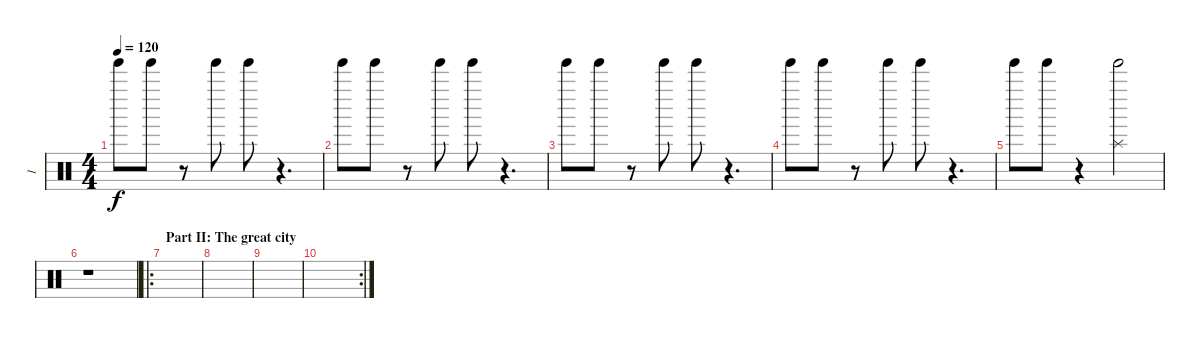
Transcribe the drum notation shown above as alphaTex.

\track ("I" "I") {instrument percussion}
\staff {score}
\articulation defaults
\ts (4 4)
\tempo 120
\clef neutral
\ks c "Tinkle Bell (hit)".8{dy f volume 7} "Tinkle Bell (hit)".8
r.8 "Tinkle Bell (hit)".8 "Tinkle Bell (hit)".8 r.4{d} |
"Tinkle Bell (hit)".8 "Tinkle Bell (hit)".8 r.8 "Tinkle Bell (hit)".8 "Tinkle Bell (hit)".8 r.4{d} |
"Tinkle Bell (hit)".8 "Tinkle Bell (hit)".8 r.8 "Tinkle Bell (hit)".8 "Tinkle Bell (hit)".8 r.4{d} |
"Tinkle Bell (hit)".8 "Tinkle Bell (hit)".8 r.8 "Tinkle Bell (hit)".8 "Tinkle Bell (hit)".8 r.4{d} |
"Tinkle Bell (hit)".8 "Tinkle Bell (hit)".8 r.4 ("Splash (hit)" "Tinkle Bell (hit)").2 |
r.1 |
\ro
\section ("" "Part II: The great city ")
|
|
|
\rc 2
